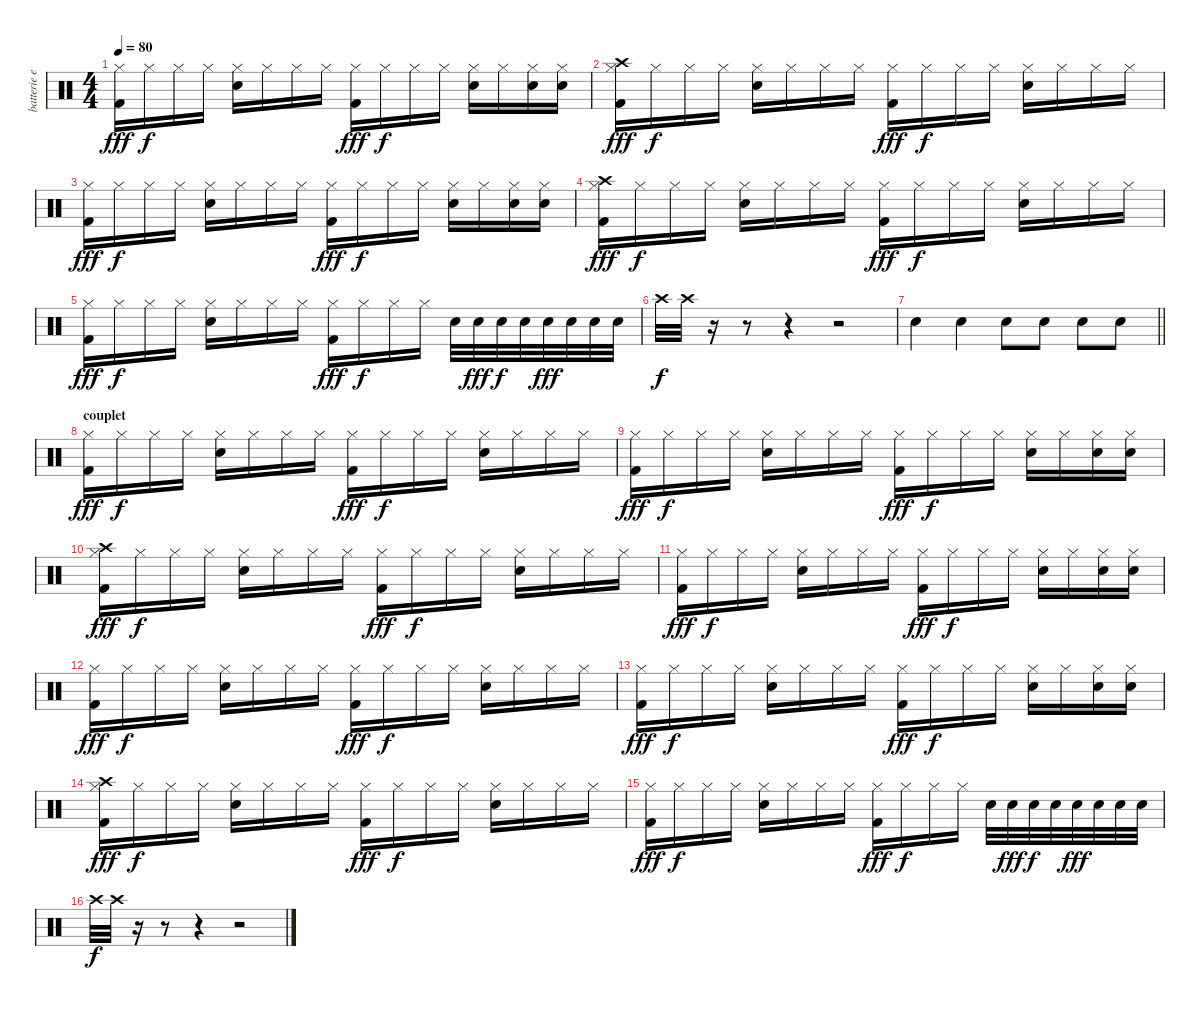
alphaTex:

\track ("batterie eti" "batterie e") {instrument percussion}
\staff {score}
\articulation defaults
\ts (4 4)
\tempo 80
\clef neutral
\ks c
("Hi-Hat (closed)" "Kick (hit) 2").16{dy fff} "Hi-Hat (closed)".16{dy f} "Hi-Hat (closed)".16 "Hi-Hat (closed)".16 ("Hi-Hat (closed)" "Electric Snare (hit)").16 "Hi-Hat (closed)".16 "Hi-Hat (closed)".16 "Hi-Hat (closed)".16 ("Hi-Hat (closed)" "Kick (hit) 2").16{dy fff} "Hi-Hat (closed)".16{dy f} "Hi-Hat (closed)".16 "Hi-Hat (closed)".16 ("Hi-Hat (closed)" "Electric Snare (hit)").16 "Hi-Hat (closed)".16 ("Hi-Hat (closed)" "Electric Snare (hit)").16 ("Hi-Hat (closed)" "Electric Snare (hit)").16 |
("Crash high (hit)" "Hi-Hat (closed)" "Kick (hit) 2").16{dy fff} "Hi-Hat (closed)".16{dy f} "Hi-Hat (closed)".16 "Hi-Hat (closed)".16 ("Hi-Hat (closed)" "Electric Snare (hit)").16 "Hi-Hat (closed)".16 "Hi-Hat (closed)".16 "Hi-Hat (closed)".16 ("Hi-Hat (closed)" "Kick (hit) 2").16{dy fff} "Hi-Hat (closed)".16{dy f} "Hi-Hat (closed)".16 "Hi-Hat (closed)".16 ("Hi-Hat (closed)" "Electric Snare (hit)").16 "Hi-Hat (closed)".16 "Hi-Hat (closed)".16 "Hi-Hat (closed)".16 |
("Hi-Hat (closed)" "Kick (hit) 2").16{dy fff} "Hi-Hat (closed)".16{dy f} "Hi-Hat (closed)".16 "Hi-Hat (closed)".16 ("Hi-Hat (closed)" "Electric Snare (hit)").16 "Hi-Hat (closed)".16 "Hi-Hat (closed)".16 "Hi-Hat (closed)".16 ("Hi-Hat (closed)" "Kick (hit) 2").16{dy fff} "Hi-Hat (closed)".16{dy f} "Hi-Hat (closed)".16 "Hi-Hat (closed)".16 ("Hi-Hat (closed)" "Electric Snare (hit)").16 "Hi-Hat (closed)".16 ("Hi-Hat (closed)" "Electric Snare (hit)").16 ("Hi-Hat (closed)" "Electric Snare (hit)").16 |
("Crash high (hit)" "Hi-Hat (closed)" "Kick (hit) 2").16{dy fff} "Hi-Hat (closed)".16{dy f} "Hi-Hat (closed)".16 "Hi-Hat (closed)".16 ("Hi-Hat (closed)" "Electric Snare (hit)").16 "Hi-Hat (closed)".16 "Hi-Hat (closed)".16 "Hi-Hat (closed)".16 ("Hi-Hat (closed)" "Kick (hit) 2").16{dy fff} "Hi-Hat (closed)".16{dy f} "Hi-Hat (closed)".16 "Hi-Hat (closed)".16 ("Hi-Hat (closed)" "Electric Snare (hit)").16 "Hi-Hat (closed)".16 "Hi-Hat (closed)".16 "Hi-Hat (closed)".16 |
("Hi-Hat (closed)" "Kick (hit) 2").16{dy fff} "Hi-Hat (closed)".16{dy f} "Hi-Hat (closed)".16 "Hi-Hat (closed)".16 ("Hi-Hat (closed)" "Electric Snare (hit)").16 "Hi-Hat (closed)".16 "Hi-Hat (closed)".16 "Hi-Hat (closed)".16 ("Hi-Hat (closed)" "Kick (hit) 2").16{dy fff} "Hi-Hat (closed)".16{dy f} "Hi-Hat (closed)".16 "Hi-Hat (closed)".16 "Electric Snare (hit)".32 "Electric Snare (hit)".32{dy fff} "Electric Snare (hit)".32{dy f} "Electric Snare (hit)".32 "Electric Snare (hit)".32{dy fff} "Electric Snare (hit)".32 "Electric Snare (hit)".32 "Electric Snare (hit)".32 |
"Crash high (hit)".32{dy f} "Crash high (hit)".32 r.16 r.8 r.4 r.2 |
\barLineRight lightlight "Electric Snare (hit)".4 "Electric Snare (hit)".4 "Electric Snare (hit)".8 "Electric Snare (hit)".8 "Electric Snare (hit)".8 "Electric Snare (hit)".8
|
\section ("" "couplet")
("Hi-Hat (closed)" "Kick (hit) 2").16{dy fff} "Hi-Hat (closed)".16{dy f} "Hi-Hat (closed)".16 "Hi-Hat (closed)".16 ("Hi-Hat (closed)" "Electric Snare (hit)").16 "Hi-Hat (closed)".16 "Hi-Hat (closed)".16 "Hi-Hat (closed)".16 ("Hi-Hat (closed)" "Kick (hit) 2").16{dy fff} "Hi-Hat (closed)".16{dy f} "Hi-Hat (closed)".16 "Hi-Hat (closed)".16 ("Hi-Hat (closed)" "Electric Snare (hit)").16 "Hi-Hat (closed)".16 "Hi-Hat (closed)".16 "Hi-Hat (closed)".16 |
("Hi-Hat (closed)" "Kick (hit) 2").16{dy fff} "Hi-Hat (closed)".16{dy f} "Hi-Hat (closed)".16 "Hi-Hat (closed)".16 ("Hi-Hat (closed)" "Electric Snare (hit)").16 "Hi-Hat (closed)".16 "Hi-Hat (closed)".16 "Hi-Hat (closed)".16 ("Hi-Hat (closed)" "Kick (hit) 2").16{dy fff} "Hi-Hat (closed)".16{dy f} "Hi-Hat (closed)".16 "Hi-Hat (closed)".16 ("Hi-Hat (closed)" "Electric Snare (hit)").16 "Hi-Hat (closed)".16 ("Hi-Hat (closed)" "Electric Snare (hit)").16 ("Hi-Hat (closed)" "Electric Snare (hit)").16 |
("Crash high (hit)" "Hi-Hat (closed)" "Kick (hit) 2").16{dy fff} "Hi-Hat (closed)".16{dy f} "Hi-Hat (closed)".16 "Hi-Hat (closed)".16 ("Hi-Hat (closed)" "Electric Snare (hit)").16 "Hi-Hat (closed)".16 "Hi-Hat (closed)".16 "Hi-Hat (closed)".16 ("Hi-Hat (closed)" "Kick (hit) 2").16{dy fff} "Hi-Hat (closed)".16{dy f} "Hi-Hat (closed)".16 "Hi-Hat (closed)".16 ("Hi-Hat (closed)" "Electric Snare (hit)").16 "Hi-Hat (closed)".16 "Hi-Hat (closed)".16 "Hi-Hat (closed)".16 |
("Hi-Hat (closed)" "Kick (hit) 2").16{dy fff} "Hi-Hat (closed)".16{dy f} "Hi-Hat (closed)".16 "Hi-Hat (closed)".16 ("Hi-Hat (closed)" "Electric Snare (hit)").16 "Hi-Hat (closed)".16 "Hi-Hat (closed)".16 "Hi-Hat (closed)".16 ("Hi-Hat (closed)" "Kick (hit) 2").16{dy fff} "Hi-Hat (closed)".16{dy f} "Hi-Hat (closed)".16 "Hi-Hat (closed)".16 ("Hi-Hat (closed)" "Electric Snare (hit)").16 "Hi-Hat (closed)".16 ("Hi-Hat (closed)" "Electric Snare (hit)").16 ("Hi-Hat (closed)" "Electric Snare (hit)").16 |
("Hi-Hat (closed)" "Kick (hit) 2").16{dy fff} "Hi-Hat (closed)".16{dy f} "Hi-Hat (closed)".16 "Hi-Hat (closed)".16 ("Hi-Hat (closed)" "Electric Snare (hit)").16 "Hi-Hat (closed)".16 "Hi-Hat (closed)".16 "Hi-Hat (closed)".16 ("Hi-Hat (closed)" "Kick (hit) 2").16{dy fff} "Hi-Hat (closed)".16{dy f} "Hi-Hat (closed)".16 "Hi-Hat (closed)".16 ("Hi-Hat (closed)" "Electric Snare (hit)").16 "Hi-Hat (closed)".16 "Hi-Hat (closed)".16 "Hi-Hat (closed)".16 |
("Hi-Hat (closed)" "Kick (hit) 2").16{dy fff} "Hi-Hat (closed)".16{dy f} "Hi-Hat (closed)".16 "Hi-Hat (closed)".16 ("Hi-Hat (closed)" "Electric Snare (hit)").16 "Hi-Hat (closed)".16 "Hi-Hat (closed)".16 "Hi-Hat (closed)".16 ("Hi-Hat (closed)" "Kick (hit) 2").16{dy fff} "Hi-Hat (closed)".16{dy f} "Hi-Hat (closed)".16 "Hi-Hat (closed)".16 ("Hi-Hat (closed)" "Electric Snare (hit)").16 "Hi-Hat (closed)".16 ("Hi-Hat (closed)" "Electric Snare (hit)").16 ("Hi-Hat (closed)" "Electric Snare (hit)").16 |
("Crash high (hit)" "Hi-Hat (closed)" "Kick (hit) 2").16{dy fff} "Hi-Hat (closed)".16{dy f} "Hi-Hat (closed)".16 "Hi-Hat (closed)".16 ("Hi-Hat (closed)" "Electric Snare (hit)").16 "Hi-Hat (closed)".16 "Hi-Hat (closed)".16 "Hi-Hat (closed)".16 ("Hi-Hat (closed)" "Kick (hit) 2").16{dy fff} "Hi-Hat (closed)".16{dy f} "Hi-Hat (closed)".16 "Hi-Hat (closed)".16 ("Hi-Hat (closed)" "Electric Snare (hit)").16 "Hi-Hat (closed)".16 "Hi-Hat (closed)".16 "Hi-Hat (closed)".16 |
("Hi-Hat (closed)" "Kick (hit) 2").16{dy fff} "Hi-Hat (closed)".16{dy f} "Hi-Hat (closed)".16 "Hi-Hat (closed)".16 ("Hi-Hat (closed)" "Electric Snare (hit)").16 "Hi-Hat (closed)".16 "Hi-Hat (closed)".16 "Hi-Hat (closed)".16 ("Hi-Hat (closed)" "Kick (hit) 2").16{dy fff} "Hi-Hat (closed)".16{dy f} "Hi-Hat (closed)".16 "Hi-Hat (closed)".16 "Electric Snare (hit)".32 "Electric Snare (hit)".32{dy fff} "Electric Snare (hit)".32{dy f} "Electric Snare (hit)".32 "Electric Snare (hit)".32{dy fff} "Electric Snare (hit)".32 "Electric Snare (hit)".32 "Electric Snare (hit)".32 |
"Crash high (hit)".32{dy f} "Crash high (hit)".32 r.16 r.8 r.4 r.2
